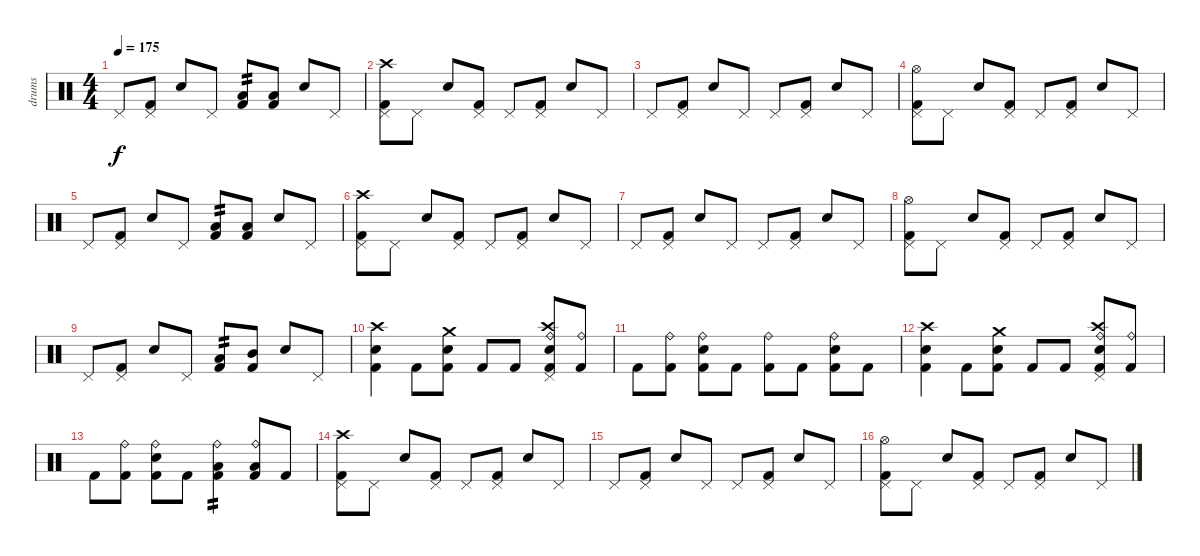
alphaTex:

\track ("drums" "drums") {instrument percussion}
\staff {score}
\articulation defaults
\ts (4 4)
\tempo 175
\clef neutral
\ks c "Pedal Hi-Hat (hit)".8{dy f}
("Pedal Hi-Hat (hit)" "Kick (hit) 2").8 "Electric Snare (hit)".8 "Pedal Hi-Hat (hit)".8 ("Low Tom (hit)" "Kick (hit) 2").8{tp 2} ("Low Tom (hit)" "Kick (hit) 2").8 "Electric Snare (hit)".8 "Pedal Hi-Hat (hit)".8 |
("Crash high (hit)" "Pedal Hi-Hat (hit)" "Kick (hit) 2").8 "Pedal Hi-Hat (hit)".8 "Electric Snare (hit)".8 ("Pedal Hi-Hat (hit)" "Kick (hit) 2").8 "Pedal Hi-Hat (hit)".8 ("Pedal Hi-Hat (hit)" "Kick (hit) 2").8 "Electric Snare (hit)".8 "Pedal Hi-Hat (hit)".8 |
"Pedal Hi-Hat (hit)".8 ("Pedal Hi-Hat (hit)" "Kick (hit) 2").8 "Electric Snare (hit)".8 "Pedal Hi-Hat (hit)".8 "Pedal Hi-Hat (hit)".8 ("Pedal Hi-Hat (hit)" "Kick (hit) 2").8 "Electric Snare (hit)".8 "Pedal Hi-Hat (hit)".8 |
("Hi-Hat (open)" "Pedal Hi-Hat (hit)" "Kick (hit) 2").8 "Pedal Hi-Hat (hit)".8 "Electric Snare (hit)".8 ("Pedal Hi-Hat (hit)" "Kick (hit) 2").8 "Pedal Hi-Hat (hit)".8 ("Pedal Hi-Hat (hit)" "Kick (hit) 2").8 "Electric Snare (hit)".8 "Pedal Hi-Hat (hit)".8 |
"Pedal Hi-Hat (hit)".8 ("Pedal Hi-Hat (hit)" "Kick (hit) 2").8 "Electric Snare (hit)".8 "Pedal Hi-Hat (hit)".8 ("Low Tom (hit)" "Kick (hit) 2").8{tp 2} ("Low Tom (hit)" "Kick (hit) 2").8 "Electric Snare (hit)".8 "Pedal Hi-Hat (hit)".8 |
("Crash high (hit)" "Pedal Hi-Hat (hit)" "Kick (hit) 2").8 "Pedal Hi-Hat (hit)".8 "Electric Snare (hit)".8 ("Pedal Hi-Hat (hit)" "Kick (hit) 2").8 "Pedal Hi-Hat (hit)".8 ("Pedal Hi-Hat (hit)" "Kick (hit) 2").8 "Electric Snare (hit)".8 "Pedal Hi-Hat (hit)".8 |
"Pedal Hi-Hat (hit)".8 ("Pedal Hi-Hat (hit)" "Kick (hit) 2").8 "Electric Snare (hit)".8 "Pedal Hi-Hat (hit)".8 "Pedal Hi-Hat (hit)".8 ("Pedal Hi-Hat (hit)" "Kick (hit) 2").8 "Electric Snare (hit)".8 "Pedal Hi-Hat (hit)".8 |
("Hi-Hat (open)" "Pedal Hi-Hat (hit)" "Kick (hit) 2").8 "Pedal Hi-Hat (hit)".8 "Electric Snare (hit)".8 ("Pedal Hi-Hat (hit)" "Kick (hit) 2").8 "Pedal Hi-Hat (hit)".8 ("Pedal Hi-Hat (hit)" "Kick (hit) 2").8 "Electric Snare (hit)".8 "Pedal Hi-Hat (hit)".8 |
"Pedal Hi-Hat (hit)".8 ("Pedal Hi-Hat (hit)" "Kick (hit) 2").8 "Electric Snare (hit)".8 "Pedal Hi-Hat (hit)".8 ("Low Tom (hit)" "Kick (hit) 2").8{tp 2} ("Mid Tom (hit)" "Kick (hit) 2").8 "Electric Snare (hit)".8 "Pedal Hi-Hat (hit)".8 |
("Crash high (hit)" "Electric Snare (hit)" "Kick (hit) 2").4 "Kick (hit) 2".8 ("Crash medium (hit)" "Electric Snare (hit)" "Kick (hit) 2").8 "Kick (hit) 2".8 "Kick (hit) 2".8 ("Ride (bell)" "Crash high (hit)" "Pedal Hi-Hat (hit)" "Electric Snare (hit)" "Kick (hit) 2").8 ("Ride (bell)" "Kick (hit) 2").8 |
"Kick (hit) 2".8 ("Ride (bell)" "Kick (hit) 2").8 ("Ride (bell)" "Electric Snare (hit)" "Kick (hit) 2").8 "Kick (hit) 2".8 ("Ride (bell)" "Kick (hit) 2").8 "Kick (hit) 2".8 ("Ride (bell)" "Electric Snare (hit)" "Kick (hit) 2").8 "Kick (hit) 2".8 |
("Crash high (hit)" "Electric Snare (hit)" "Kick (hit) 2").4 "Kick (hit) 2".8 ("Crash medium (hit)" "Electric Snare (hit)" "Kick (hit) 2").8 "Kick (hit) 2".8 "Kick (hit) 2".8 ("Ride (bell)" "Crash high (hit)" "Pedal Hi-Hat (hit)" "Electric Snare (hit)" "Kick (hit) 2").8 ("Ride (bell)" "Kick (hit) 2").8 |
"Kick (hit) 2".8 ("Ride (bell)" "Kick (hit) 2").8 ("Ride (bell)" "Electric Snare (hit)" "Kick (hit) 2").8 "Kick (hit) 2".8 ("Ride (bell)" "Low Tom (hit)" "Kick (hit) 2").4{tp 2} ("Ride (bell)" "Low Floor Tom (hit)" "Kick (hit) 2").8 "Kick (hit) 2".8 |
("Crash high (hit)" "Pedal Hi-Hat (hit)" "Kick (hit) 2").8 "Pedal Hi-Hat (hit)".8 "Electric Snare (hit)".8 ("Pedal Hi-Hat (hit)" "Kick (hit) 2").8 "Pedal Hi-Hat (hit)".8 ("Pedal Hi-Hat (hit)" "Kick (hit) 2").8 "Electric Snare (hit)".8 "Pedal Hi-Hat (hit)".8 |
"Pedal Hi-Hat (hit)".8 ("Pedal Hi-Hat (hit)" "Kick (hit) 2").8 "Electric Snare (hit)".8 "Pedal Hi-Hat (hit)".8 "Pedal Hi-Hat (hit)".8 ("Pedal Hi-Hat (hit)" "Kick (hit) 2").8 "Electric Snare (hit)".8 "Pedal Hi-Hat (hit)".8 |
("Hi-Hat (open)" "Pedal Hi-Hat (hit)" "Kick (hit) 2").8 "Pedal Hi-Hat (hit)".8 "Electric Snare (hit)".8 ("Pedal Hi-Hat (hit)" "Kick (hit) 2").8 "Pedal Hi-Hat (hit)".8 ("Pedal Hi-Hat (hit)" "Kick (hit) 2").8 "Electric Snare (hit)".8 "Pedal Hi-Hat (hit)".8
